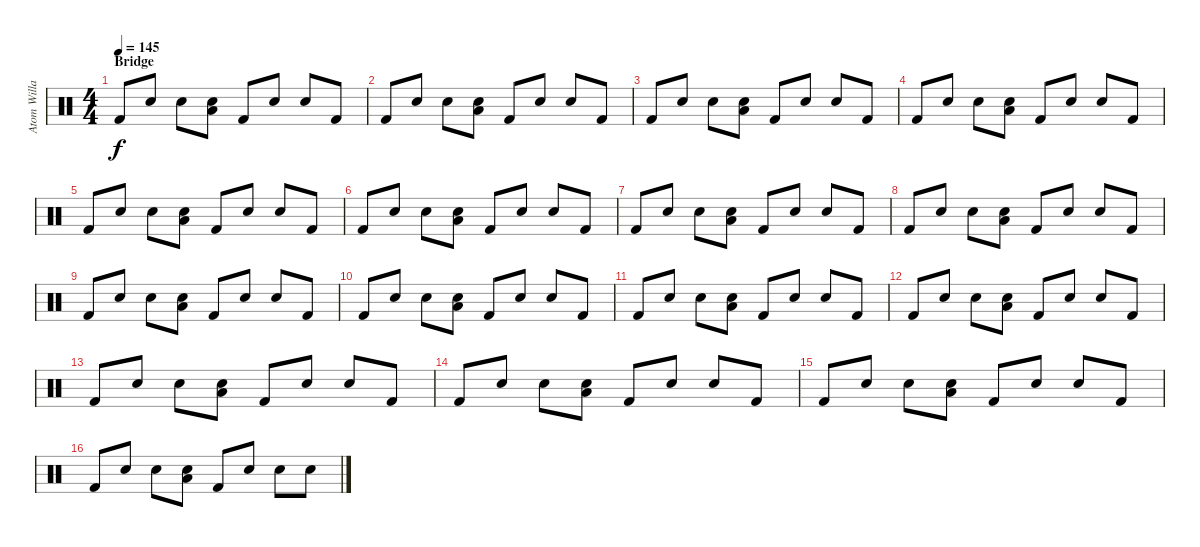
\track ("Atom Willard (Drums)" "Atom Willa") {instrument percussion}
\staff {score}
\articulation defaults
\ts (4 4)
\section ("" "Bridge")
\tempo 145
\clef neutral
\ks c "Kick (hit) 2".8{dy f} "Snare (hit)".8 "Snare (hit)".8
("Snare (hit)" "Low Tom (hit)").8 "Kick (hit) 2".8 "Snare (hit)".8 "Snare (hit)".8 "Kick (hit) 2".8 |
"Kick (hit) 2".8 "Snare (hit)".8 "Snare (hit)".8 ("Snare (hit)" "Low Tom (hit)").8 "Kick (hit) 2".8 "Snare (hit)".8 "Snare (hit)".8 "Kick (hit) 2".8 |
"Kick (hit) 2".8 "Snare (hit)".8 "Snare (hit)".8 ("Snare (hit)" "Low Tom (hit)").8 "Kick (hit) 2".8 "Snare (hit)".8 "Snare (hit)".8 "Kick (hit) 2".8 |
"Kick (hit) 2".8 "Snare (hit)".8 "Snare (hit)".8 ("Snare (hit)" "Low Tom (hit)").8 "Kick (hit) 2".8 "Snare (hit)".8 "Snare (hit)".8 "Kick (hit) 2".8 |
"Kick (hit) 2".8 "Snare (hit)".8 "Snare (hit)".8 ("Snare (hit)" "Low Tom (hit)").8 "Kick (hit) 2".8 "Snare (hit)".8 "Snare (hit)".8 "Kick (hit) 2".8 |
"Kick (hit) 2".8 "Snare (hit)".8 "Snare (hit)".8 ("Snare (hit)" "Low Tom (hit)").8 "Kick (hit) 2".8 "Snare (hit)".8 "Snare (hit)".8 "Kick (hit) 2".8 |
"Kick (hit) 2".8 "Snare (hit)".8 "Snare (hit)".8 ("Snare (hit)" "Low Tom (hit)").8 "Kick (hit) 2".8 "Snare (hit)".8 "Snare (hit)".8 "Kick (hit) 2".8 |
"Kick (hit) 2".8 "Snare (hit)".8 "Snare (hit)".8 ("Snare (hit)" "Low Tom (hit)").8 "Kick (hit) 2".8 "Snare (hit)".8 "Snare (hit)".8 "Kick (hit) 2".8 |
"Kick (hit) 2".8 "Snare (hit)".8 "Snare (hit)".8 ("Snare (hit)" "Low Tom (hit)").8 "Kick (hit) 2".8 "Snare (hit)".8 "Snare (hit)".8 "Kick (hit) 2".8 |
"Kick (hit) 2".8 "Snare (hit)".8 "Snare (hit)".8 ("Snare (hit)" "Low Tom (hit)").8 "Kick (hit) 2".8 "Snare (hit)".8 "Snare (hit)".8 "Kick (hit) 2".8 |
"Kick (hit) 2".8 "Snare (hit)".8 "Snare (hit)".8 ("Snare (hit)" "Low Tom (hit)").8 "Kick (hit) 2".8 "Snare (hit)".8 "Snare (hit)".8 "Kick (hit) 2".8 |
"Kick (hit) 2".8 "Snare (hit)".8 "Snare (hit)".8 ("Snare (hit)" "Low Tom (hit)").8 "Kick (hit) 2".8 "Snare (hit)".8 "Snare (hit)".8 "Kick (hit) 2".8 |
"Kick (hit) 2".8 "Snare (hit)".8 "Snare (hit)".8 ("Snare (hit)" "Low Tom (hit)").8 "Kick (hit) 2".8 "Snare (hit)".8 "Snare (hit)".8 "Kick (hit) 2".8 |
"Kick (hit) 2".8 "Snare (hit)".8 "Snare (hit)".8 ("Snare (hit)" "Low Tom (hit)").8 "Kick (hit) 2".8 "Snare (hit)".8 "Snare (hit)".8 "Kick (hit) 2".8 |
"Kick (hit) 2".8 "Snare (hit)".8 "Snare (hit)".8 ("Snare (hit)" "Low Tom (hit)").8 "Kick (hit) 2".8 "Snare (hit)".8 "Snare (hit)".8 "Kick (hit) 2".8 |
"Kick (hit) 2".8 "Snare (hit)".8 "Snare (hit)".8 ("Snare (hit)" "Low Tom (hit)").8 "Kick (hit) 2".8 "Snare (hit)".8 "Snare (hit)".8 "Snare (hit)".8
